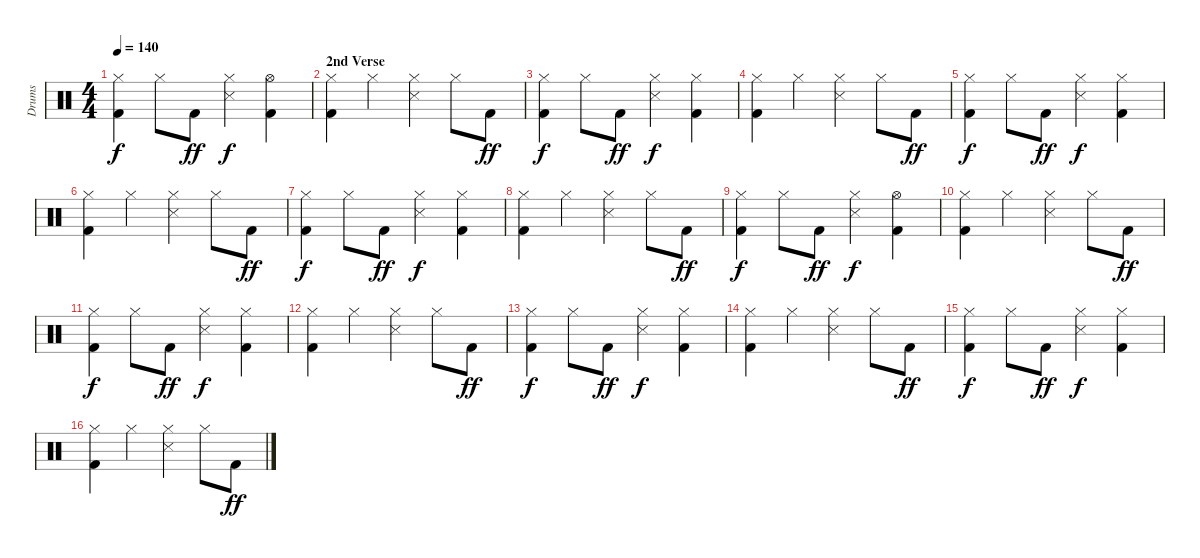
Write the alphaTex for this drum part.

\track ("Drums" "Drums") {instrument percussion}
\staff {score}
\articulation defaults
\ts (4 4)
\tempo 140
\clef neutral
\ks c
("Kick (hit) 2" "Hi-Hat (closed)").4{dy f} "Hi-Hat (closed)".8 "Kick (hit) 2".8{dy ff} ("Snare (side stick) 3" "Hi-Hat (closed)").4{dy f} ("Kick (hit) 2" "Hi-Hat (open)").4 |
\section ("" "2nd Verse")
("Kick (hit) 2" "Hi-Hat (closed)").4 "Hi-Hat (closed)".4 ("Snare (side stick) 3" "Hi-Hat (closed)").4 "Hi-Hat (closed)".8 "Kick (hit) 2".8{dy ff} |
("Kick (hit) 2" "Hi-Hat (closed)").4{dy f} "Hi-Hat (closed)".8 "Kick (hit) 2".8{dy ff} ("Snare (side stick) 3" "Hi-Hat (closed)").4{dy f} ("Kick (hit) 2" "Hi-Hat (closed)").4 |
("Kick (hit) 2" "Hi-Hat (closed)").4 "Hi-Hat (closed)".4 ("Snare (side stick) 3" "Hi-Hat (closed)").4 "Hi-Hat (closed)".8 "Kick (hit) 2".8{dy ff} |
("Kick (hit) 2" "Hi-Hat (closed)").4{dy f} "Hi-Hat (closed)".8 "Kick (hit) 2".8{dy ff} ("Snare (side stick) 3" "Hi-Hat (closed)").4{dy f} ("Kick (hit) 2" "Hi-Hat (closed)").4 |
("Kick (hit) 2" "Hi-Hat (closed)").4 "Hi-Hat (closed)".4 ("Snare (side stick) 3" "Hi-Hat (closed)").4 "Hi-Hat (closed)".8 "Kick (hit) 2".8{dy ff} |
("Kick (hit) 2" "Hi-Hat (closed)").4{dy f} "Hi-Hat (closed)".8 "Kick (hit) 2".8{dy ff} ("Snare (side stick) 3" "Hi-Hat (closed)").4{dy f} ("Kick (hit) 2" "Hi-Hat (closed)").4 |
("Kick (hit) 2" "Hi-Hat (closed)").4 "Hi-Hat (closed)".4 ("Snare (side stick) 3" "Hi-Hat (closed)").4 "Hi-Hat (closed)".8 "Kick (hit) 2".8{dy ff} |
("Kick (hit) 2" "Hi-Hat (closed)").4{dy f} "Hi-Hat (closed)".8 "Kick (hit) 2".8{dy ff} ("Snare (side stick) 3" "Hi-Hat (closed)").4{dy f} ("Kick (hit) 2" "Hi-Hat (open)").4 |
("Kick (hit) 2" "Hi-Hat (closed)").4 "Hi-Hat (closed)".4 ("Snare (side stick) 3" "Hi-Hat (closed)").4 "Hi-Hat (closed)".8 "Kick (hit) 2".8{dy ff} |
("Kick (hit) 2" "Hi-Hat (closed)").4{dy f} "Hi-Hat (closed)".8 "Kick (hit) 2".8{dy ff} ("Snare (side stick) 3" "Hi-Hat (closed)").4{dy f} ("Kick (hit) 2" "Hi-Hat (closed)").4 |
("Kick (hit) 2" "Hi-Hat (closed)").4 "Hi-Hat (closed)".4 ("Snare (side stick) 3" "Hi-Hat (closed)").4 "Hi-Hat (closed)".8 "Kick (hit) 2".8{dy ff} |
("Kick (hit) 2" "Hi-Hat (closed)").4{dy f} "Hi-Hat (closed)".8 "Kick (hit) 2".8{dy ff} ("Snare (side stick) 3" "Hi-Hat (closed)").4{dy f} ("Kick (hit) 2" "Hi-Hat (closed)").4 |
("Kick (hit) 2" "Hi-Hat (closed)").4 "Hi-Hat (closed)".4 ("Snare (side stick) 3" "Hi-Hat (closed)").4 "Hi-Hat (closed)".8 "Kick (hit) 2".8{dy ff} |
("Kick (hit) 2" "Hi-Hat (closed)").4{dy f} "Hi-Hat (closed)".8 "Kick (hit) 2".8{dy ff} ("Snare (side stick) 3" "Hi-Hat (closed)").4{dy f} ("Kick (hit) 2" "Hi-Hat (closed)").4 |
("Kick (hit) 2" "Hi-Hat (closed)").4 "Hi-Hat (closed)".4 ("Snare (side stick) 3" "Hi-Hat (closed)").4 "Hi-Hat (closed)".8 "Kick (hit) 2".8{dy ff}
